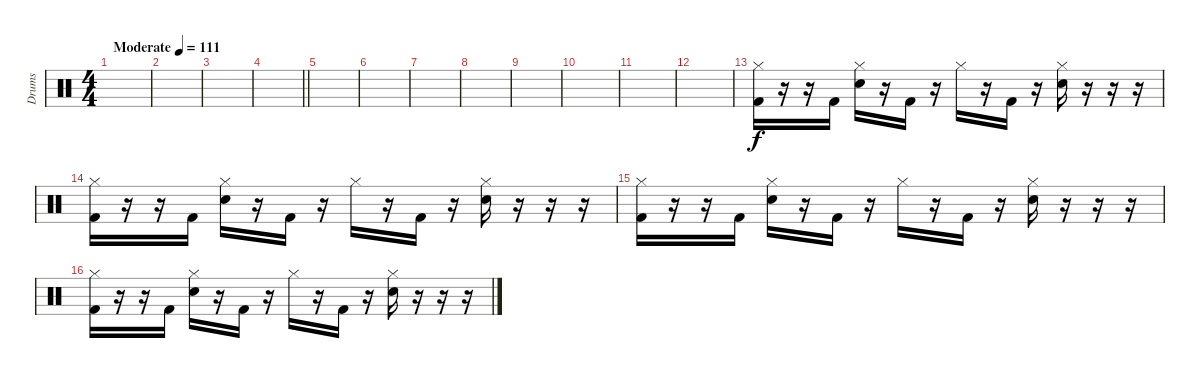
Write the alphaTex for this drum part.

\track ("Drums" "Drums") {instrument percussion}
\staff {score}
\articulation defaults
\ts (4 4)
\tempo (111 "Moderate")
\clef neutral
\ks c
|
|
|
\barLineRight lightlight
|
|
|
|
|
|
|
|
|
("Hi-Hat (closed)" "Kick (hit) 2").16 r.16 r.16 "Kick (hit) 2".16 ("Hi-Hat (closed)" "Snare (hit) 2").16 r.16 "Kick (hit) 2".16 r.16 "Hi-Hat (closed)".16 r.16 "Kick (hit) 2".16 r.16 ("Hi-Hat (closed)" "Snare (hit) 2").16 r.16 r.16 r.16 |
("Hi-Hat (closed)" "Kick (hit) 2").16 r.16 r.16 "Kick (hit) 2".16 ("Hi-Hat (closed)" "Snare (hit) 2").16 r.16 "Kick (hit) 2".16 r.16 "Hi-Hat (closed)".16 r.16 "Kick (hit) 2".16 r.16 ("Hi-Hat (closed)" "Snare (hit) 2").16 r.16 r.16 r.16 |
("Hi-Hat (closed)" "Kick (hit) 2").16 r.16 r.16 "Kick (hit) 2".16 ("Hi-Hat (closed)" "Snare (hit) 2").16 r.16 "Kick (hit) 2".16 r.16 "Hi-Hat (closed)".16 r.16 "Kick (hit) 2".16 r.16 ("Hi-Hat (closed)" "Snare (hit) 2").16 r.16 r.16 r.16 |
("Hi-Hat (closed)" "Kick (hit) 2").16 r.16 r.16 "Kick (hit) 2".16 ("Hi-Hat (closed)" "Snare (hit) 2").16 r.16 "Kick (hit) 2".16 r.16 "Hi-Hat (closed)".16 r.16 "Kick (hit) 2".16 r.16 ("Hi-Hat (closed)" "Snare (hit) 2").16 r.16 r.16 r.16
